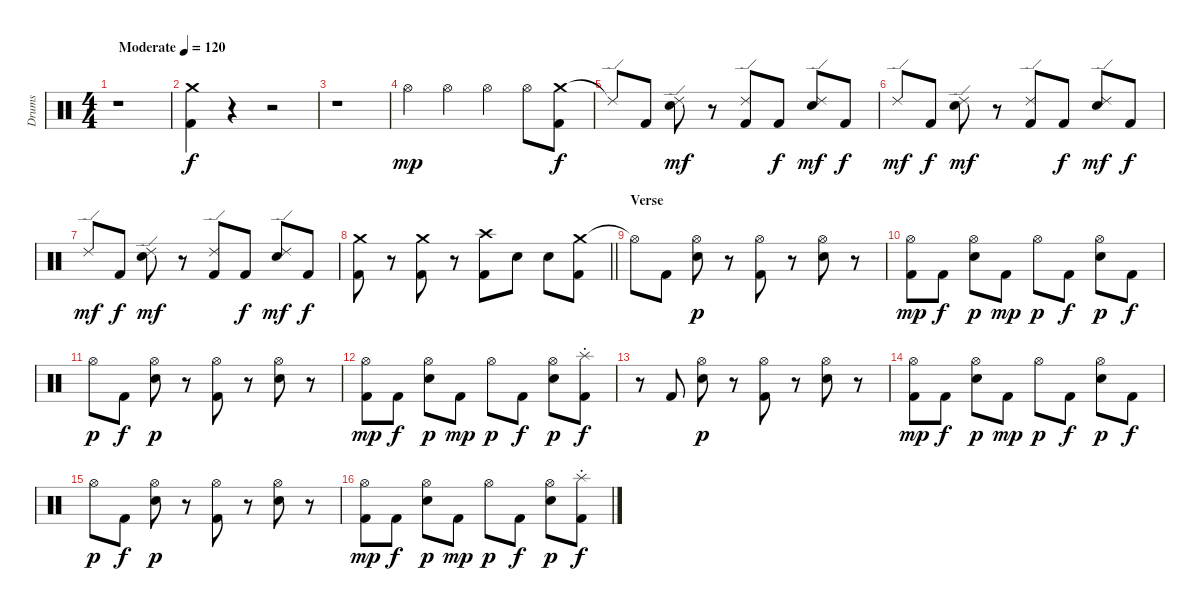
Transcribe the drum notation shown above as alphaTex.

\track ("Drums" "Drums") {instrument percussion}
\staff {score}
\articulation defaults
\ts (4 4)
\tempo (120 "Moderate")
\clef neutral
\ks c
r.1{dy f} |
("Crash medium (hit)" "Kick (hit) 2").4 r.4 r.2 |
r.1 |
"Hi-Hat (open)".4{dy mp} "Hi-Hat (open)".4 "Hi-Hat (open)".4 "Hi-Hat (open)".8 ("Crash medium (hit)" "Kick (hit) 2").8{dy f} |
"Ride (edge) 2"{t}.8 "Kick (hit) 2".8 ("Ride (edge) 2" "Electric Snare (hit)").8{dy mf} r.8 ("Ride (edge) 2" "Kick (hit) 2").8 "Kick (hit) 2".8{dy f} ("Ride (edge) 2" "Electric Snare (hit)").8{dy mf} "Kick (hit) 2".8{dy f} |
"Ride (edge) 2".8{dy mf} "Kick (hit) 2".8{dy f} ("Ride (edge) 2" "Electric Snare (hit)").8{dy mf} r.8 ("Ride (edge) 2" "Kick (hit) 2").8 "Kick (hit) 2".8{dy f} ("Ride (edge) 2" "Electric Snare (hit)").8{dy mf} "Kick (hit) 2".8{dy f} |
"Ride (edge) 2".8{dy mf} "Kick (hit) 2".8{dy f} ("Ride (edge) 2" "Electric Snare (hit)").8{dy mf} r.8 ("Ride (edge) 2" "Kick (hit) 2").8 "Kick (hit) 2".8{dy f} ("Ride (edge) 2" "Electric Snare (hit)").8{dy mf} "Kick (hit) 2".8{dy f} |
\barLineRight lightlight
("Crash medium (hit)" "Kick (hit) 2").8 r.8 ("Crash medium (hit)" "Kick (hit) 2").8 r.8 ("Crash high (hit)" "Kick (hit) 2").8 "Electric Snare (hit)".8 "Electric Snare (hit)".8 ("Crash medium (hit)" "Kick (hit) 2").8 |
\section ("" "Verse")
"Hi-Hat (open)"{t}.8 "Kick (hit) 2".8 ("Hi-Hat (open)" "Electric Snare (hit)").8{dy p} r.8 ("Hi-Hat (open)" "Kick (hit) 2").8 r.8 ("Hi-Hat (open)" "Electric Snare (hit)").8 r.8 |
("Hi-Hat (open)" "Kick (hit) 2").8{dy mp} "Kick (hit) 2".8{dy f} ("Hi-Hat (open)" "Electric Snare (hit)").8{dy p} "Kick (hit) 2".8{dy mp} "Hi-Hat (open)".8{dy p} "Kick (hit) 2".8{dy f} ("Hi-Hat (open)" "Electric Snare (hit)").8{dy p} "Kick (hit) 2".8{dy f} |
"Hi-Hat (open)".8{dy p} "Kick (hit) 2".8{dy f} ("Hi-Hat (open)" "Electric Snare (hit)").8{dy p} r.8 ("Hi-Hat (open)" "Kick (hit) 2").8 r.8 ("Hi-Hat (open)" "Electric Snare (hit)").8 r.8 |
("Hi-Hat (open)" "Kick (hit) 2").8{dy mp} "Kick (hit) 2".8{dy f} ("Hi-Hat (open)" "Electric Snare (hit)").8{dy p} "Kick (hit) 2".8{dy mp} "Hi-Hat (open)".8{dy p} "Kick (hit) 2".8{dy f} ("Hi-Hat (open)" "Electric Snare (hit)").8{dy p} ("Splash (hit)"{st} "Kick (hit) 2").8{dy f} |
r.8 "Kick (hit) 2".8 ("Hi-Hat (open)" "Electric Snare (hit)").8{dy p} r.8 ("Hi-Hat (open)" "Kick (hit) 2").8 r.8 ("Hi-Hat (open)" "Electric Snare (hit)").8 r.8 |
("Hi-Hat (open)" "Kick (hit) 2").8{dy mp} "Kick (hit) 2".8{dy f} ("Hi-Hat (open)" "Electric Snare (hit)").8{dy p} "Kick (hit) 2".8{dy mp} "Hi-Hat (open)".8{dy p} "Kick (hit) 2".8{dy f} ("Hi-Hat (open)" "Electric Snare (hit)").8{dy p} "Kick (hit) 2".8{dy f} |
"Hi-Hat (open)".8{dy p} "Kick (hit) 2".8{dy f} ("Hi-Hat (open)" "Electric Snare (hit)").8{dy p} r.8 ("Hi-Hat (open)" "Kick (hit) 2").8 r.8 ("Hi-Hat (open)" "Electric Snare (hit)").8 r.8 |
("Hi-Hat (open)" "Kick (hit) 2").8{dy mp} "Kick (hit) 2".8{dy f} ("Hi-Hat (open)" "Electric Snare (hit)").8{dy p} "Kick (hit) 2".8{dy mp} "Hi-Hat (open)".8{dy p} "Kick (hit) 2".8{dy f} ("Hi-Hat (open)" "Electric Snare (hit)").8{dy p} ("Splash (hit)"{st} "Kick (hit) 2").8{dy f}
